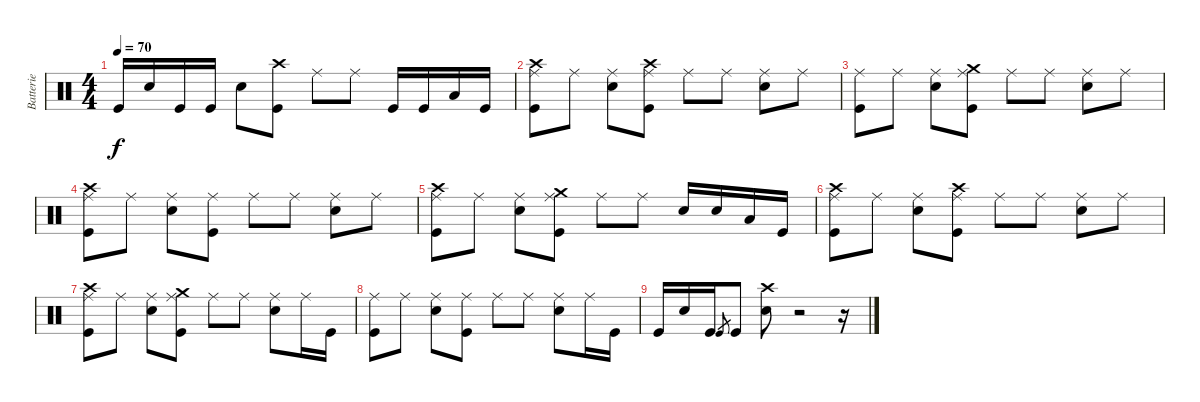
\track ("Batterie" "Batterie") {instrument percussion}
\staff {score}
\articulation defaults
\ts (4 4)
\tempo 70
\clef neutral
\ks c "Kick (hit)".16{dy f} "Snare (hit) 2".16 "Kick (hit)".16 "Kick (hit)".16 "Snare (hit) 2".8
("Crash high (hit)" "Kick (hit)").8 "Ride (middle)".8 "Ride (middle)".8 "Kick (hit)".16 "Kick (hit)".16 "Low Tom (hit)".16 "Kick (hit)".16 |
("Ride (middle)" "Crash high (hit)" "Kick (hit)").8 "Ride (middle)".8 ("Ride (middle)" "Snare (hit) 2").8 ("Ride (middle)" "Crash high (hit)" "Kick (hit)").8 "Ride (middle)".8 "Ride (middle)".8 ("Ride (middle)" "Snare (hit) 2").8 "Ride (middle)".8 |
("Ride (middle)" "Kick (hit)").8 "Ride (middle)".8 ("Ride (middle)" "Snare (hit) 2").8 ("Ride (middle)" "Crash medium (hit)" "Kick (hit)").8 "Ride (middle)".8 "Ride (middle)".8 ("Ride (middle)" "Snare (hit) 2").8 "Ride (middle)".8 |
("Ride (middle)" "Crash high (hit)" "Kick (hit)").8 "Ride (middle)".8 ("Ride (middle)" "Snare (hit) 2").8 ("Ride (middle)" "Kick (hit)").8 "Ride (middle)".8 "Ride (middle)".8 ("Ride (middle)" "Snare (hit) 2").8 "Ride (middle)".8 |
("Ride (middle)" "Crash high (hit)" "Kick (hit)").8 "Ride (middle)".8 ("Ride (middle)" "Snare (hit) 2").8 ("Ride (middle)" "Crash medium (hit)" "Kick (hit)").8 "Ride (middle)".8 "Ride (middle)".8 "Snare (hit) 2".16 "Snare (hit) 2".16 "Low Tom (hit)".16 "Kick (hit)".16 |
("Ride (middle)" "Crash high (hit)" "Kick (hit)").8 "Ride (middle)".8 ("Ride (middle)" "Snare (hit) 2").8 ("Ride (middle)" "Crash high (hit)" "Kick (hit)").8 "Ride (middle)".8 "Ride (middle)".8 ("Ride (middle)" "Snare (hit) 2").8 "Ride (middle)".8 |
("Ride (middle)" "Crash high (hit)" "Kick (hit)").8 "Ride (middle)".8 ("Ride (middle)" "Snare (hit) 2").8 ("Ride (middle)" "Crash medium (hit)" "Kick (hit)").8 "Ride (middle)".8 "Ride (middle)".8 ("Ride (middle)" "Snare (hit) 2").8 "Ride (middle)".16 "Kick (hit)".16 |
("Ride (middle)" "Kick (hit)").8 "Ride (middle)".8 ("Ride (middle)" "Snare (hit) 2").8 ("Ride (middle)" "Kick (hit)").8 "Ride (middle)".8 "Ride (middle)".8 ("Ride (middle)" "Snare (hit) 2").8 "Ride (middle)".16 "Kick (hit)".16 |
"Kick (hit)".16 "Snare (hit) 2".16 "Kick (hit)".16 "Kick (hit)".8{gr} "Kick (hit)".8 ("Crash high (hit)" "Snare (hit) 2").8 r.2 r.16
